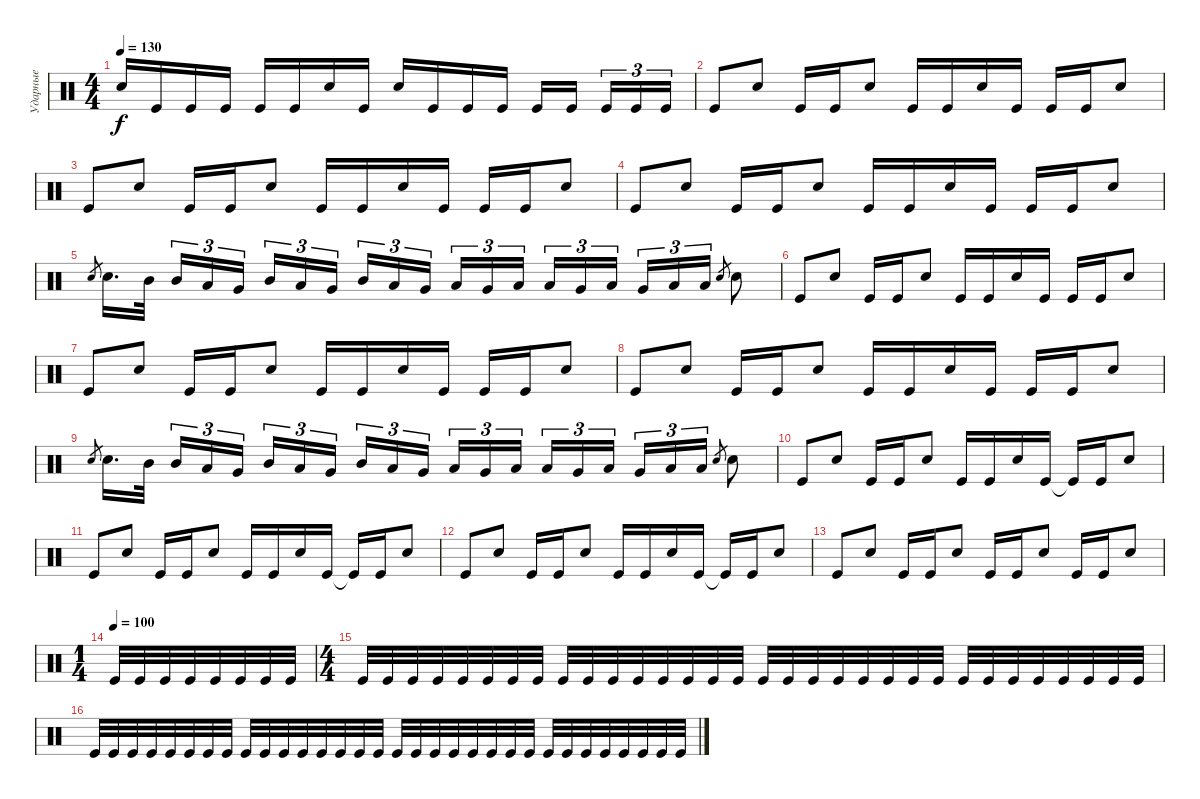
\track ("Ударные" "Ударные") {instrument percussion}
\staff {score}
\articulation defaults
\ts (4 4)
\tempo 130
\clef neutral
\ks c "Snare (hit) 2".16{dy f} "Kick (hit)".16 "Kick (hit)".16 "Kick (hit)".16 "Kick (hit)".16 "Kick (hit)".16 "Snare (hit) 2".16 "Kick (hit)".16 "Snare (hit) 2".16 "Kick (hit)".16 "Kick (hit)".16 "Kick (hit)".16 "Kick (hit)".16 "Kick (hit)".16{beam splitsecondary} "Kick (hit)".16{tu (3 2)} "Kick (hit)".16{tu (3 2)} "Kick (hit)".16{tu (3 2)}
|
"Kick (hit)".8 "Snare (hit) 2".8 "Kick (hit)".16 "Kick (hit)".16 "Snare (hit) 2".8 "Kick (hit)".16 "Kick (hit)".16 "Snare (hit) 2".16 "Kick (hit)".16 "Kick (hit)".16 "Kick (hit)".16 "Snare (hit) 2".8 |
"Kick (hit)".8 "Snare (hit) 2".8 "Kick (hit)".16 "Kick (hit)".16 "Snare (hit) 2".8 "Kick (hit)".16 "Kick (hit)".16 "Snare (hit) 2".16 "Kick (hit)".16 "Kick (hit)".16 "Kick (hit)".16 "Snare (hit) 2".8 |
"Kick (hit)".8 "Snare (hit) 2".8 "Kick (hit)".16 "Kick (hit)".16 "Snare (hit) 2".8 "Kick (hit)".16 "Kick (hit)".16 "Snare (hit) 2".16 "Kick (hit)".16 "Kick (hit)".16 "Kick (hit)".16 "Snare (hit) 2".8 |
"Snare (hit) 2".8{gr} "Snare (hit) 2".16{d} "Mid Tom (hit)".32{beam splitsecondary} "Mid Tom (hit)".16{tu (3 2)} "Low Tom (hit)".16{tu (3 2)} "Very Low Tom (hit)".16{tu (3 2)} "Mid Tom (hit)".16{tu (3 2)} "Low Tom (hit)".16{tu (3 2)} "Very Low Tom (hit)".16{tu (3 2) beam splitsecondary} "Mid Tom (hit)".16{tu (3 2)} "Low Tom (hit)".16{tu (3 2)} "Very Low Tom (hit)".16{tu (3 2)} "Low Tom (hit)".16{tu (3 2)} "Very Low Tom (hit)".16{tu (3 2)} "Low Floor Tom (hit)".16{tu (3 2) beam splitsecondary} "Low Tom (hit)".16{tu (3 2)} "Very Low Tom (hit)".16{tu (3 2)} "Low Floor Tom (hit)".16{tu (3 2)} "Very Low Tom (hit)".16{tu (3 2)} "Low Floor Tom (hit)".16{tu (3 2)} "Low Floor Tom (hit)".16{tu (3 2)} "Snare (hit) 2".8{gr} "Snare (hit) 2".8 |
"Kick (hit)".8 "Snare (hit) 2".8 "Kick (hit)".16 "Kick (hit)".16 "Snare (hit) 2".8 "Kick (hit)".16 "Kick (hit)".16 "Snare (hit) 2".16 "Kick (hit)".16 "Kick (hit)".16 "Kick (hit)".16 "Snare (hit) 2".8 |
"Kick (hit)".8 "Snare (hit) 2".8 "Kick (hit)".16 "Kick (hit)".16 "Snare (hit) 2".8 "Kick (hit)".16 "Kick (hit)".16 "Snare (hit) 2".16 "Kick (hit)".16 "Kick (hit)".16 "Kick (hit)".16 "Snare (hit) 2".8 |
"Kick (hit)".8 "Snare (hit) 2".8 "Kick (hit)".16 "Kick (hit)".16 "Snare (hit) 2".8 "Kick (hit)".16 "Kick (hit)".16 "Snare (hit) 2".16 "Kick (hit)".16 "Kick (hit)".16 "Kick (hit)".16 "Snare (hit) 2".8 |
"Snare (hit) 2".8{gr} "Snare (hit) 2".16{d} "Mid Tom (hit)".32{beam splitsecondary} "Mid Tom (hit)".16{tu (3 2)} "Low Tom (hit)".16{tu (3 2)} "Very Low Tom (hit)".16{tu (3 2)} "Mid Tom (hit)".16{tu (3 2)} "Low Tom (hit)".16{tu (3 2)} "Very Low Tom (hit)".16{tu (3 2) beam splitsecondary} "Mid Tom (hit)".16{tu (3 2)} "Low Tom (hit)".16{tu (3 2)} "Very Low Tom (hit)".16{tu (3 2)} "Low Tom (hit)".16{tu (3 2)} "Very Low Tom (hit)".16{tu (3 2)} "Low Floor Tom (hit)".16{tu (3 2) beam splitsecondary} "Low Tom (hit)".16{tu (3 2)} "Very Low Tom (hit)".16{tu (3 2)} "Low Floor Tom (hit)".16{tu (3 2)} "Very Low Tom (hit)".16{tu (3 2)} "Low Floor Tom (hit)".16{tu (3 2)} "Low Floor Tom (hit)".16{tu (3 2)} "Snare (hit) 2".8{gr} "Snare (hit) 2".8 |
"Kick (hit)".8 "Snare (hit) 2".8 "Kick (hit)".16 "Kick (hit)".16 "Snare (hit) 2".8 "Kick (hit)".16 "Kick (hit)".16 "Snare (hit) 2".16 "Kick (hit)".16 "Kick (hit)"{t}.16 "Kick (hit)".16 "Snare (hit) 2".8 |
"Kick (hit)".8 "Snare (hit) 2".8 "Kick (hit)".16 "Kick (hit)".16 "Snare (hit) 2".8 "Kick (hit)".16 "Kick (hit)".16 "Snare (hit) 2".16 "Kick (hit)".16 "Kick (hit)"{t}.16 "Kick (hit)".16 "Snare (hit) 2".8 |
"Kick (hit)".8 "Snare (hit) 2".8 "Kick (hit)".16 "Kick (hit)".16 "Snare (hit) 2".8 "Kick (hit)".16 "Kick (hit)".16 "Snare (hit) 2".16 "Kick (hit)".16 "Kick (hit)"{t}.16 "Kick (hit)".16 "Snare (hit) 2".8 |
"Kick (hit)".8 "Snare (hit) 2".8 "Kick (hit)".16 "Kick (hit)".16 "Snare (hit) 2".8 "Kick (hit)".16 "Kick (hit)".16 "Snare (hit) 2".8 "Kick (hit)".16 "Kick (hit)".16 "Snare (hit) 2".8 |
\ts (1 4)
\tempo (100)
"Kick (hit)".32 "Kick (hit)".32 "Kick (hit)".32 "Kick (hit)".32 "Kick (hit)".32 "Kick (hit)".32 "Kick (hit)".32 "Kick (hit)".32 |
\ts (4 4)
"Kick (hit)".32 "Kick (hit)".32 "Kick (hit)".32 "Kick (hit)".32 "Kick (hit)".32 "Kick (hit)".32 "Kick (hit)".32 "Kick (hit)".32 "Kick (hit)".32 "Kick (hit)".32 "Kick (hit)".32 "Kick (hit)".32 "Kick (hit)".32 "Kick (hit)".32 "Kick (hit)".32 "Kick (hit)".32 "Kick (hit)".32 "Kick (hit)".32 "Kick (hit)".32 "Kick (hit)".32 "Kick (hit)".32 "Kick (hit)".32 "Kick (hit)".32 "Kick (hit)".32 "Kick (hit)".32 "Kick (hit)".32 "Kick (hit)".32 "Kick (hit)".32 "Kick (hit)".32 "Kick (hit)".32 "Kick (hit)".32 "Kick (hit)".32 |
"Kick (hit)".32 "Kick (hit)".32 "Kick (hit)".32 "Kick (hit)".32 "Kick (hit)".32 "Kick (hit)".32 "Kick (hit)".32 "Kick (hit)".32 "Kick (hit)".32 "Kick (hit)".32 "Kick (hit)".32 "Kick (hit)".32 "Kick (hit)".32 "Kick (hit)".32 "Kick (hit)".32 "Kick (hit)".32 "Kick (hit)".32 "Kick (hit)".32 "Kick (hit)".32 "Kick (hit)".32 "Kick (hit)".32 "Kick (hit)".32 "Kick (hit)".32 "Kick (hit)".32 "Kick (hit)".32 "Kick (hit)".32 "Kick (hit)".32 "Kick (hit)".32 "Kick (hit)".32 "Kick (hit)".32 "Kick (hit)".32 "Kick (hit)".32
